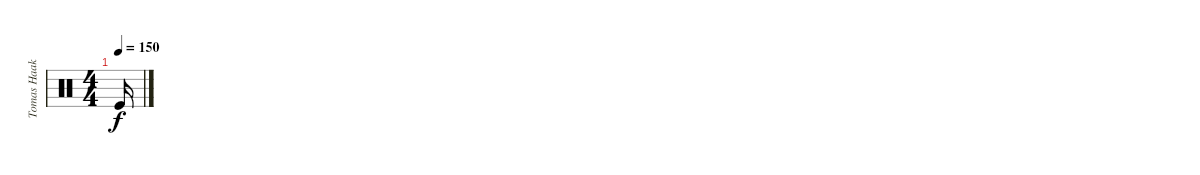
\track ("Tomas Haake - Kicks" "Tomas Haak") {instrument percussion}
\staff {score}
\articulation defaults
\ts (4 4)
\tempo 150
\clef neutral
\ks c "Kick (hit)".16{dy f}
